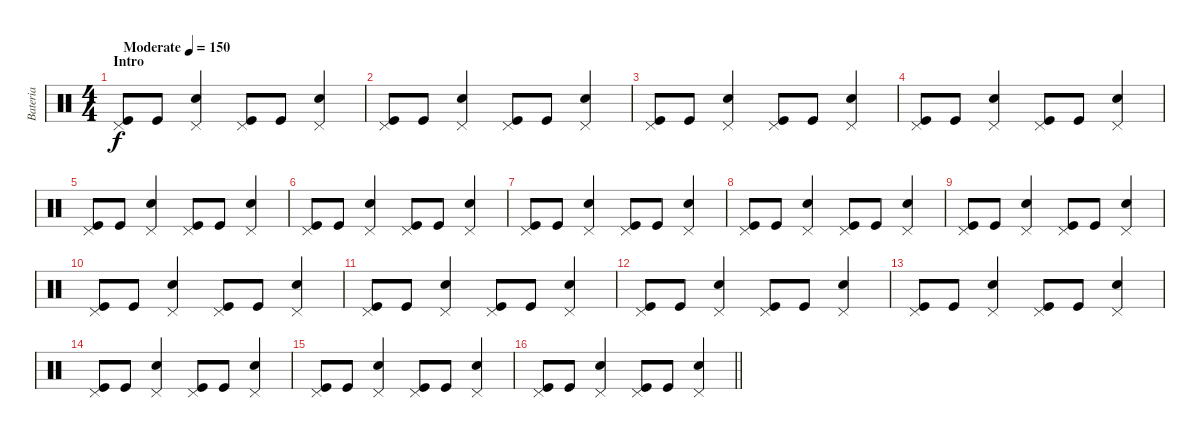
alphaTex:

\track ("Bateria" "Bateria") {instrument percussion}
\staff {score}
\articulation defaults
\ts (4 4)
\section ("" "Intro")
\tempo (150 "Moderate")
\clef neutral
\ks c
("Pedal Hi-Hat (hit)" "Kick (hit)").8{dy f} "Kick (hit)".8 ("Pedal Hi-Hat (hit)" "Snare (hit) 2").4 ("Pedal Hi-Hat (hit)" "Kick (hit)").8 "Kick (hit)".8 ("Pedal Hi-Hat (hit)" "Snare (hit) 2").4 |
("Pedal Hi-Hat (hit)" "Kick (hit)").8 "Kick (hit)".8 ("Pedal Hi-Hat (hit)" "Snare (hit) 2").4 ("Pedal Hi-Hat (hit)" "Kick (hit)").8 "Kick (hit)".8 ("Pedal Hi-Hat (hit)" "Snare (hit) 2").4 |
("Pedal Hi-Hat (hit)" "Kick (hit)").8 "Kick (hit)".8 ("Pedal Hi-Hat (hit)" "Snare (hit) 2").4 ("Pedal Hi-Hat (hit)" "Kick (hit)").8 "Kick (hit)".8 ("Pedal Hi-Hat (hit)" "Snare (hit) 2").4 |
("Pedal Hi-Hat (hit)" "Kick (hit)").8 "Kick (hit)".8 ("Pedal Hi-Hat (hit)" "Snare (hit) 2").4 ("Pedal Hi-Hat (hit)" "Kick (hit)").8 "Kick (hit)".8 ("Pedal Hi-Hat (hit)" "Snare (hit) 2").4 |
("Pedal Hi-Hat (hit)" "Kick (hit)").8 "Kick (hit)".8 ("Pedal Hi-Hat (hit)" "Snare (hit) 2").4 ("Pedal Hi-Hat (hit)" "Kick (hit)").8 "Kick (hit)".8 ("Pedal Hi-Hat (hit)" "Snare (hit) 2").4 |
("Pedal Hi-Hat (hit)" "Kick (hit)").8 "Kick (hit)".8 ("Pedal Hi-Hat (hit)" "Snare (hit) 2").4 ("Pedal Hi-Hat (hit)" "Kick (hit)").8 "Kick (hit)".8 ("Pedal Hi-Hat (hit)" "Snare (hit) 2").4 |
("Pedal Hi-Hat (hit)" "Kick (hit)").8 "Kick (hit)".8 ("Pedal Hi-Hat (hit)" "Snare (hit) 2").4 ("Pedal Hi-Hat (hit)" "Kick (hit)").8 "Kick (hit)".8 ("Pedal Hi-Hat (hit)" "Snare (hit) 2").4 |
("Pedal Hi-Hat (hit)" "Kick (hit)").8 "Kick (hit)".8 ("Pedal Hi-Hat (hit)" "Snare (hit) 2").4 ("Pedal Hi-Hat (hit)" "Kick (hit)").8 "Kick (hit)".8 ("Pedal Hi-Hat (hit)" "Snare (hit) 2").4 |
("Pedal Hi-Hat (hit)" "Kick (hit)").8 "Kick (hit)".8 ("Pedal Hi-Hat (hit)" "Snare (hit) 2").4 ("Pedal Hi-Hat (hit)" "Kick (hit)").8 "Kick (hit)".8 ("Pedal Hi-Hat (hit)" "Snare (hit) 2").4 |
("Pedal Hi-Hat (hit)" "Kick (hit)").8 "Kick (hit)".8 ("Pedal Hi-Hat (hit)" "Snare (hit) 2").4 ("Pedal Hi-Hat (hit)" "Kick (hit)").8 "Kick (hit)".8 ("Pedal Hi-Hat (hit)" "Snare (hit) 2").4 |
("Pedal Hi-Hat (hit)" "Kick (hit)").8 "Kick (hit)".8 ("Pedal Hi-Hat (hit)" "Snare (hit) 2").4 ("Pedal Hi-Hat (hit)" "Kick (hit)").8 "Kick (hit)".8 ("Pedal Hi-Hat (hit)" "Snare (hit) 2").4 |
("Pedal Hi-Hat (hit)" "Kick (hit)").8 "Kick (hit)".8 ("Pedal Hi-Hat (hit)" "Snare (hit) 2").4 ("Pedal Hi-Hat (hit)" "Kick (hit)").8 "Kick (hit)".8 ("Pedal Hi-Hat (hit)" "Snare (hit) 2").4 |
("Pedal Hi-Hat (hit)" "Kick (hit)").8 "Kick (hit)".8 ("Pedal Hi-Hat (hit)" "Snare (hit) 2").4 ("Pedal Hi-Hat (hit)" "Kick (hit)").8 "Kick (hit)".8 ("Pedal Hi-Hat (hit)" "Snare (hit) 2").4 |
("Pedal Hi-Hat (hit)" "Kick (hit)").8 "Kick (hit)".8 ("Pedal Hi-Hat (hit)" "Snare (hit) 2").4 ("Pedal Hi-Hat (hit)" "Kick (hit)").8 "Kick (hit)".8 ("Pedal Hi-Hat (hit)" "Snare (hit) 2").4 |
("Pedal Hi-Hat (hit)" "Kick (hit)").8 "Kick (hit)".8 ("Pedal Hi-Hat (hit)" "Snare (hit) 2").4 ("Pedal Hi-Hat (hit)" "Kick (hit)").8 "Kick (hit)".8 ("Pedal Hi-Hat (hit)" "Snare (hit) 2").4 |
\barLineRight lightlight
("Pedal Hi-Hat (hit)" "Kick (hit)").8 "Kick (hit)".8 ("Pedal Hi-Hat (hit)" "Snare (hit) 2").4 ("Pedal Hi-Hat (hit)" "Kick (hit)").8 "Kick (hit)".8 ("Pedal Hi-Hat (hit)" "Snare (hit) 2").4
